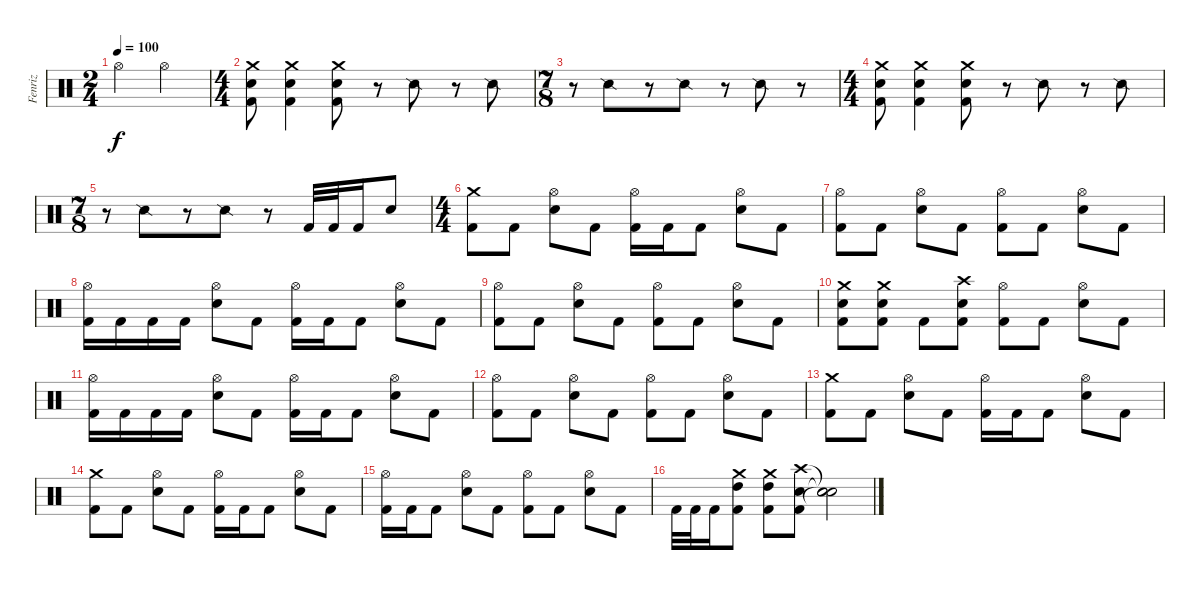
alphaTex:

\track ("Fenriz" "Fenriz") {instrument percussion}
\staff {score}
\articulation defaults
\ts (2 4)
\tempo 100
\clef neutral
\ks c "Hi-Hat (open)".4{dy f} "Hi-Hat (open)".4
|
\ts (4 4)
("Crash medium (hit)" "Electric Snare (hit)" "Kick (hit) 2").8 ("Crash medium (hit)" "Electric Snare (hit)" "Kick (hit) 2").4 ("Crash medium (hit)" "Electric Snare (hit)" "Kick (hit) 2").8 r.8 "Snare (side stick) 2".8 r.8 "Snare (side stick) 2".8 |
\ts (7 8)
r.8 "Snare (side stick) 2".8 r.8 "Snare (side stick) 2".8 r.8 "Snare (side stick) 2".8 r.8 |
\ts (4 4)
("Crash medium (hit)" "Electric Snare (hit)" "Kick (hit) 2").8 ("Crash medium (hit)" "Electric Snare (hit)" "Kick (hit) 2").4 ("Crash medium (hit)" "Electric Snare (hit)" "Kick (hit) 2").8 r.8 "Snare (side stick) 2".8 r.8 "Snare (side stick) 2".8 |
\ts (7 8)
r.8 "Snare (side stick) 2".8 r.8 "Snare (side stick) 2".8 r.8 "Kick (hit) 2".32 "Kick (hit) 2".32 "Kick (hit) 2".16 "Electric Snare (hit)".8 |
\ts (4 4)
("Crash medium (hit)" "Kick (hit) 2").8 "Kick (hit) 2".8 ("Hi-Hat (open)" "Electric Snare (hit)").8 "Kick (hit) 2".8 ("Hi-Hat (open)" "Kick (hit) 2").16 "Kick (hit) 2".16 "Kick (hit) 2".8 ("Hi-Hat (open)" "Electric Snare (hit)").8 "Kick (hit) 2".8 |
("Hi-Hat (open)" "Kick (hit) 2").8 "Kick (hit) 2".8 ("Hi-Hat (open)" "Electric Snare (hit)").8 "Kick (hit) 2".8 ("Hi-Hat (open)" "Kick (hit) 2").8 "Kick (hit) 2".8 ("Hi-Hat (open)" "Electric Snare (hit)").8 "Kick (hit) 2".8 |
("Hi-Hat (open)" "Kick (hit) 2").16 "Kick (hit) 2".16 "Kick (hit) 2".16 "Kick (hit) 2".16 ("Hi-Hat (open)" "Electric Snare (hit)").8 "Kick (hit) 2".8 ("Hi-Hat (open)" "Kick (hit) 2").16 "Kick (hit) 2".16 "Kick (hit) 2".8 ("Hi-Hat (open)" "Electric Snare (hit)").8 "Kick (hit) 2".8 |
("Hi-Hat (open)" "Kick (hit) 2").8 "Kick (hit) 2".8 ("Hi-Hat (open)" "Electric Snare (hit)").8 "Kick (hit) 2".8 ("Hi-Hat (open)" "Kick (hit) 2").8 "Kick (hit) 2".8 ("Hi-Hat (open)" "Electric Snare (hit)").8 "Kick (hit) 2".8 |
("Crash medium (hit)" "Electric Snare (hit)" "Kick (hit) 2").8 ("Crash medium (hit)" "Electric Snare (hit)" "Kick (hit) 2").8 "Kick (hit) 2".8 ("Crash high (hit)" "Electric Snare (hit)" "Kick (hit) 2").8 ("Hi-Hat (open)" "Kick (hit) 2").8 "Kick (hit) 2".8 ("Hi-Hat (open)" "Electric Snare (hit)").8 "Kick (hit) 2".8 |
("Hi-Hat (open)" "Kick (hit) 2").16 "Kick (hit) 2".16 "Kick (hit) 2".16 "Kick (hit) 2".16 ("Hi-Hat (open)" "Electric Snare (hit)").8 "Kick (hit) 2".8 ("Hi-Hat (open)" "Kick (hit) 2").16 "Kick (hit) 2".16 "Kick (hit) 2".8 ("Hi-Hat (open)" "Electric Snare (hit)").8 "Kick (hit) 2".8 |
("Hi-Hat (open)" "Kick (hit) 2").8 "Kick (hit) 2".8 ("Hi-Hat (open)" "Electric Snare (hit)").8 "Kick (hit) 2".8 ("Hi-Hat (open)" "Kick (hit) 2").8 "Kick (hit) 2".8 ("Hi-Hat (open)" "Electric Snare (hit)").8 "Kick (hit) 2".8 |
("Crash medium (hit)" "Kick (hit) 2").8 "Kick (hit) 2".8 ("Hi-Hat (open)" "Electric Snare (hit)").8 "Kick (hit) 2".8 ("Hi-Hat (open)" "Kick (hit) 2").16 "Kick (hit) 2".16 "Kick (hit) 2".8 ("Hi-Hat (open)" "Electric Snare (hit)").8 "Kick (hit) 2".8 |
("Crash medium (hit)" "Kick (hit) 2").8 "Kick (hit) 2".8 ("Hi-Hat (open)" "Electric Snare (hit)").8 "Kick (hit) 2".8 ("Hi-Hat (open)" "Kick (hit) 2").16 "Kick (hit) 2".16 "Kick (hit) 2".8 ("Hi-Hat (open)" "Electric Snare (hit)").8 "Kick (hit) 2".8 |
("Hi-Hat (open)" "Kick (hit) 2").16 "Kick (hit) 2".16 "Kick (hit) 2".8 ("Hi-Hat (open)" "Electric Snare (hit)").8 "Kick (hit) 2".8 ("Hi-Hat (open)" "Kick (hit) 2").8 "Kick (hit) 2".8 ("Hi-Hat (open)" "Electric Snare (hit)").8 "Kick (hit) 2".8 |
"Kick (hit) 2".32 "Kick (hit) 2".32 "Kick (hit) 2".16 ("Crash medium (hit)" "High Tom (hit)" "Kick (hit) 2").8 ("Crash medium (hit)" "High Tom (hit)" "Kick (hit) 2").8 ("Crash high (hit)" "Electric Snare (hit)" "Kick (hit) 2").8 ("Snare (hit)"{t} "Snare (hit)"{t} "Snare (hit)"{t}).2
